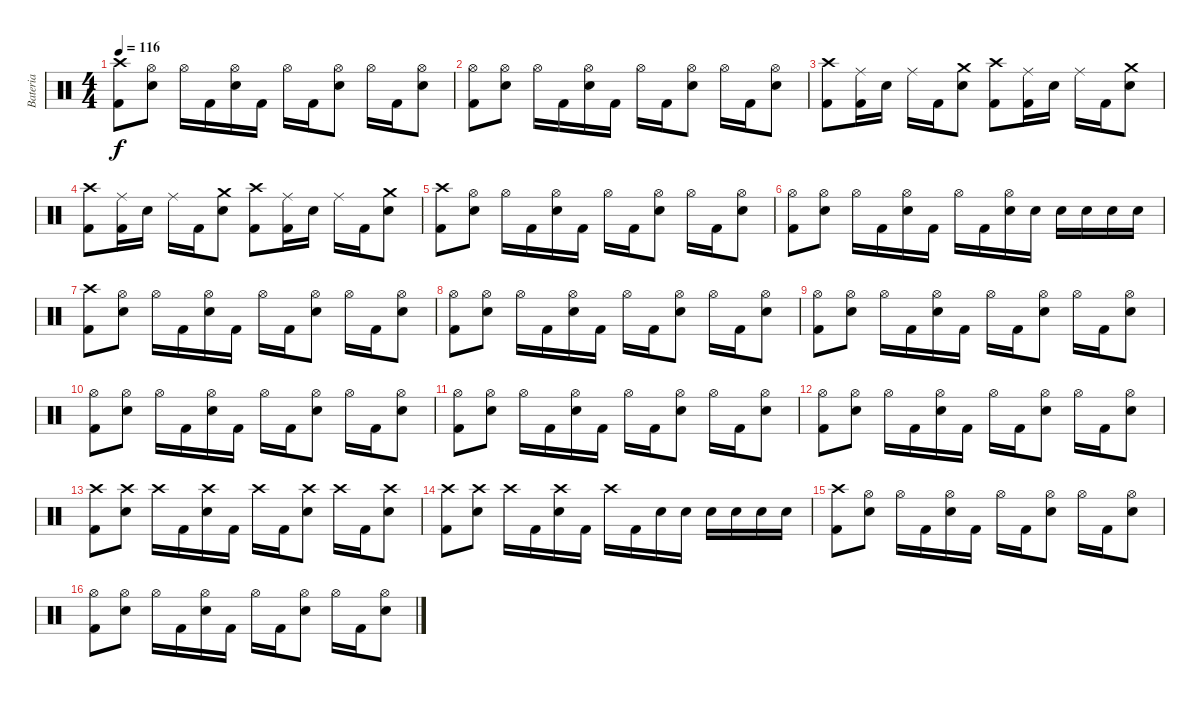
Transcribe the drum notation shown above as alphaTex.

\track ("Bateria" "Bateria") {instrument percussion}
\staff {score}
\articulation defaults
\ts (4 4)
\tempo 116
\clef neutral
\ks c
("Kick (hit) 2" "Crash high (hit)").8{dy f} ("Snare (hit) 2" "Hi-Hat (open)").8 "Hi-Hat (open)".16 "Kick (hit) 2".16 ("Snare (hit) 2" "Hi-Hat (open)").16 "Kick (hit) 2".16 "Hi-Hat (open)".16 "Kick (hit) 2".16 ("Snare (hit) 2" "Hi-Hat (open)").8 "Hi-Hat (open)".16 "Kick (hit) 2".16 ("Snare (hit) 2" "Hi-Hat (open)").8 |
("Kick (hit) 2" "Hi-Hat (open)").8 ("Snare (hit) 2" "Hi-Hat (open)").8 "Hi-Hat (open)".16 "Kick (hit) 2".16 ("Snare (hit) 2" "Hi-Hat (open)").16 "Kick (hit) 2".16 "Hi-Hat (open)".16 "Kick (hit) 2".16 ("Snare (hit) 2" "Hi-Hat (open)").8 "Hi-Hat (open)".16 "Kick (hit) 2".16 ("Snare (hit) 2" "Hi-Hat (open)").8 |
("Kick (hit) 2" "Crash high (hit)").8 ("Kick (hit) 2" "Ride (middle)").16 "Snare (hit) 2".16 "Ride (middle)".16 "Kick (hit) 2".16 ("Snare (hit) 2" "Crash medium (hit)").8 ("Kick (hit) 2" "Crash high (hit)").8 ("Kick (hit) 2" "Ride (middle)").16 "Snare (hit) 2".16 "Ride (middle)".16 "Kick (hit) 2".16 ("Snare (hit) 2" "Crash medium (hit)").8 |
("Kick (hit) 2" "Crash high (hit)").8 ("Kick (hit) 2" "Ride (middle)").16 "Snare (hit) 2".16 "Ride (middle)".16 "Kick (hit) 2".16 ("Snare (hit) 2" "Crash medium (hit)").8 ("Kick (hit) 2" "Crash high (hit)").8 ("Kick (hit) 2" "Ride (middle)").16 "Snare (hit) 2".16 "Ride (middle)".16 "Kick (hit) 2".16 ("Snare (hit) 2" "Crash medium (hit)").8 |
("Kick (hit) 2" "Crash high (hit)").8 ("Snare (hit) 2" "Hi-Hat (open)").8 "Hi-Hat (open)".16 "Kick (hit) 2".16 ("Snare (hit) 2" "Hi-Hat (open)").16 "Kick (hit) 2".16 "Hi-Hat (open)".16 "Kick (hit) 2".16 ("Snare (hit) 2" "Hi-Hat (open)").8 "Hi-Hat (open)".16 "Kick (hit) 2".16 ("Snare (hit) 2" "Hi-Hat (open)").8 |
("Kick (hit) 2" "Hi-Hat (open)").8 ("Snare (hit) 2" "Hi-Hat (open)").8 "Hi-Hat (open)".16 "Kick (hit) 2".16 ("Snare (hit) 2" "Hi-Hat (open)").16 "Kick (hit) 2".16 "Hi-Hat (open)".16 "Kick (hit) 2".16 ("Snare (hit) 2" "Hi-Hat (open)").16 "Snare (hit) 2".16 "Snare (hit) 2".16 "Snare (hit) 2".16 "Snare (hit) 2".16 "Snare (hit) 2".16 |
("Kick (hit) 2" "Crash high (hit)").8 ("Snare (hit) 2" "Hi-Hat (open)").8 "Hi-Hat (open)".16 "Kick (hit) 2".16 ("Snare (hit) 2" "Hi-Hat (open)").16 "Kick (hit) 2".16 "Hi-Hat (open)".16 "Kick (hit) 2".16 ("Snare (hit) 2" "Hi-Hat (open)").8 "Hi-Hat (open)".16 "Kick (hit) 2".16 ("Snare (hit) 2" "Hi-Hat (open)").8 |
("Kick (hit) 2" "Hi-Hat (open)").8 ("Snare (hit) 2" "Hi-Hat (open)").8 "Hi-Hat (open)".16 "Kick (hit) 2".16 ("Snare (hit) 2" "Hi-Hat (open)").16 "Kick (hit) 2".16 "Hi-Hat (open)".16 "Kick (hit) 2".16 ("Snare (hit) 2" "Hi-Hat (open)").8 "Hi-Hat (open)".16 "Kick (hit) 2".16 ("Snare (hit) 2" "Hi-Hat (open)").8 |
("Kick (hit) 2" "Hi-Hat (open)").8 ("Snare (hit) 2" "Hi-Hat (open)").8 "Hi-Hat (open)".16 "Kick (hit) 2".16 ("Snare (hit) 2" "Hi-Hat (open)").16 "Kick (hit) 2".16 "Hi-Hat (open)".16 "Kick (hit) 2".16 ("Snare (hit) 2" "Hi-Hat (open)").8 "Hi-Hat (open)".16 "Kick (hit) 2".16 ("Snare (hit) 2" "Hi-Hat (open)").8 |
("Kick (hit) 2" "Hi-Hat (open)").8 ("Snare (hit) 2" "Hi-Hat (open)").8 "Hi-Hat (open)".16 "Kick (hit) 2".16 ("Snare (hit) 2" "Hi-Hat (open)").16 "Kick (hit) 2".16 "Hi-Hat (open)".16 "Kick (hit) 2".16 ("Snare (hit) 2" "Hi-Hat (open)").8 "Hi-Hat (open)".16 "Kick (hit) 2".16 ("Snare (hit) 2" "Hi-Hat (open)").8 |
("Kick (hit) 2" "Hi-Hat (open)").8 ("Snare (hit) 2" "Hi-Hat (open)").8 "Hi-Hat (open)".16 "Kick (hit) 2".16 ("Snare (hit) 2" "Hi-Hat (open)").16 "Kick (hit) 2".16 "Hi-Hat (open)".16 "Kick (hit) 2".16 ("Snare (hit) 2" "Hi-Hat (open)").8 "Hi-Hat (open)".16 "Kick (hit) 2".16 ("Snare (hit) 2" "Hi-Hat (open)").8 |
("Kick (hit) 2" "Hi-Hat (open)").8 ("Snare (hit) 2" "Hi-Hat (open)").8 "Hi-Hat (open)".16 "Kick (hit) 2".16 ("Snare (hit) 2" "Hi-Hat (open)").16 "Kick (hit) 2".16 "Hi-Hat (open)".16 "Kick (hit) 2".16 ("Snare (hit) 2" "Hi-Hat (open)").8 "Hi-Hat (open)".16 "Kick (hit) 2".16 ("Snare (hit) 2" "Hi-Hat (open)").8 |
("Kick (hit) 2" "Crash high (hit)").8 ("Snare (hit) 2" "Crash high (hit)").8 "Crash high (hit)".16 "Kick (hit) 2".16 ("Snare (hit) 2" "Crash high (hit)").16 "Kick (hit) 2".16 "Crash high (hit)".16 "Kick (hit) 2".16 ("Snare (hit) 2" "Crash high (hit)").8 "Crash high (hit)".16 "Kick (hit) 2".16 ("Snare (hit) 2" "Crash high (hit)").8 |
("Kick (hit) 2" "Crash high (hit)").8 ("Snare (hit) 2" "Crash high (hit)").8 "Crash high (hit)".16 "Kick (hit) 2".16 ("Snare (hit) 2" "Crash high (hit)").16 "Kick (hit) 2".16 "Crash high (hit)".16 "Kick (hit) 2".16 "Snare (hit) 2".16 "Snare (hit) 2".16 "Snare (hit) 2".16 "Snare (hit) 2".16 "Snare (hit) 2".16 "Snare (hit) 2".16 |
("Kick (hit) 2" "Crash high (hit)").8 ("Snare (hit) 2" "Hi-Hat (open)").8 "Hi-Hat (open)".16 "Kick (hit) 2".16 ("Snare (hit) 2" "Hi-Hat (open)").16 "Kick (hit) 2".16 "Hi-Hat (open)".16 "Kick (hit) 2".16 ("Snare (hit) 2" "Hi-Hat (open)").8 "Hi-Hat (open)".16 "Kick (hit) 2".16 ("Snare (hit) 2" "Hi-Hat (open)").8 |
("Kick (hit) 2" "Hi-Hat (open)").8 ("Snare (hit) 2" "Hi-Hat (open)").8 "Hi-Hat (open)".16 "Kick (hit) 2".16 ("Snare (hit) 2" "Hi-Hat (open)").16 "Kick (hit) 2".16 "Hi-Hat (open)".16 "Kick (hit) 2".16 ("Snare (hit) 2" "Hi-Hat (open)").8 "Hi-Hat (open)".16 "Kick (hit) 2".16 ("Snare (hit) 2" "Hi-Hat (open)").8
